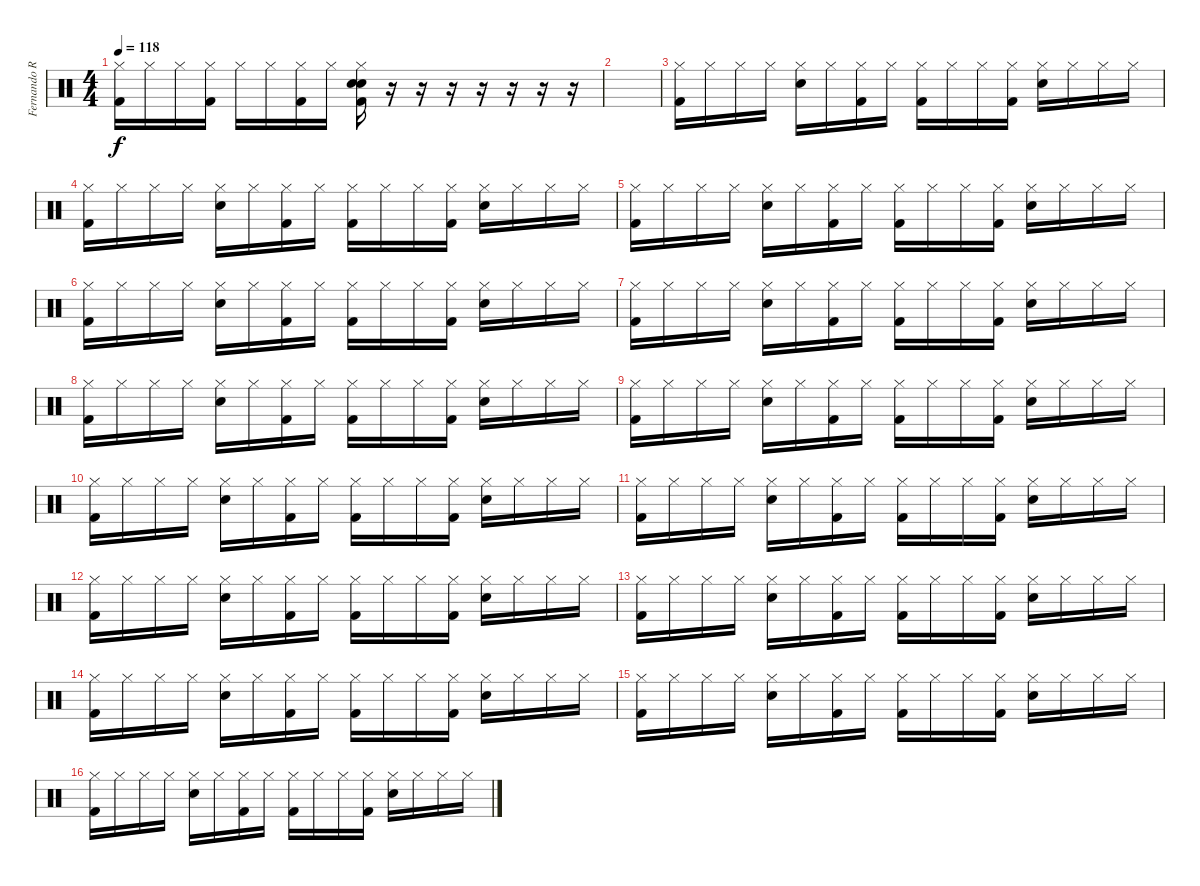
\track ("Fernando Ricciardi" "Fernando R") {instrument percussion}
\staff {score}
\articulation defaults
\ts (4 4)
\tempo 118
\clef neutral
\ks c
("Hi-Hat (closed)" "Kick (hit) 2").16{dy f} "Hi-Hat (closed)".16 "Hi-Hat (closed)".16 ("Hi-Hat (closed)" "Kick (hit) 2").16 "Hi-Hat (closed)".16 "Hi-Hat (closed)".16 ("Hi-Hat (closed)" "Kick (hit) 2").16 "Hi-Hat (closed)".16 ("Snare (hit) 2" "Hi-Hat (closed)" "Electric Snare (hit)" "Kick (hit) 2").16 r.16 r.16 r.16 r.16 r.16 r.16 r.16 |
|
("Hi-Hat (closed)" "Kick (hit) 2").16 "Hi-Hat (closed)".16 "Hi-Hat (closed)".16 "Hi-Hat (closed)".16 ("Hi-Hat (closed)" "Snare (hit) 2").16 "Hi-Hat (closed)".16 ("Hi-Hat (closed)" "Kick (hit) 2").16 "Hi-Hat (closed)".16 ("Hi-Hat (closed)" "Kick (hit) 2").16 "Hi-Hat (closed)".16 "Hi-Hat (closed)".16 ("Hi-Hat (closed)" "Kick (hit) 2").16 ("Hi-Hat (closed)" "Snare (hit) 2").16 "Hi-Hat (closed)".16 "Hi-Hat (closed)".16 "Hi-Hat (closed)".16 |
("Hi-Hat (closed)" "Kick (hit) 2").16 "Hi-Hat (closed)".16 "Hi-Hat (closed)".16 "Hi-Hat (closed)".16 ("Hi-Hat (closed)" "Snare (hit) 2").16 "Hi-Hat (closed)".16 ("Hi-Hat (closed)" "Kick (hit) 2").16 "Hi-Hat (closed)".16 ("Hi-Hat (closed)" "Kick (hit) 2").16 "Hi-Hat (closed)".16 "Hi-Hat (closed)".16 ("Hi-Hat (closed)" "Kick (hit) 2").16 ("Hi-Hat (closed)" "Snare (hit) 2").16 "Hi-Hat (closed)".16 "Hi-Hat (closed)".16 "Hi-Hat (closed)".16 |
("Hi-Hat (closed)" "Kick (hit) 2").16 "Hi-Hat (closed)".16 "Hi-Hat (closed)".16 "Hi-Hat (closed)".16 ("Hi-Hat (closed)" "Snare (hit) 2").16 "Hi-Hat (closed)".16 ("Hi-Hat (closed)" "Kick (hit) 2").16 "Hi-Hat (closed)".16 ("Hi-Hat (closed)" "Kick (hit) 2").16 "Hi-Hat (closed)".16 "Hi-Hat (closed)".16 ("Hi-Hat (closed)" "Kick (hit) 2").16 ("Hi-Hat (closed)" "Snare (hit) 2").16 "Hi-Hat (closed)".16 "Hi-Hat (closed)".16 "Hi-Hat (closed)".16 |
("Hi-Hat (closed)" "Kick (hit) 2").16 "Hi-Hat (closed)".16 "Hi-Hat (closed)".16 "Hi-Hat (closed)".16 ("Hi-Hat (closed)" "Snare (hit) 2").16 "Hi-Hat (closed)".16 ("Hi-Hat (closed)" "Kick (hit) 2").16 "Hi-Hat (closed)".16 ("Hi-Hat (closed)" "Kick (hit) 2").16 "Hi-Hat (closed)".16 "Hi-Hat (closed)".16 ("Hi-Hat (closed)" "Kick (hit) 2").16 ("Hi-Hat (closed)" "Snare (hit) 2").16 "Hi-Hat (closed)".16 "Hi-Hat (closed)".16 "Hi-Hat (closed)".16 |
("Hi-Hat (closed)" "Kick (hit) 2").16 "Hi-Hat (closed)".16 "Hi-Hat (closed)".16 "Hi-Hat (closed)".16 ("Hi-Hat (closed)" "Snare (hit) 2").16 "Hi-Hat (closed)".16 ("Hi-Hat (closed)" "Kick (hit) 2").16 "Hi-Hat (closed)".16 ("Hi-Hat (closed)" "Kick (hit) 2").16 "Hi-Hat (closed)".16 "Hi-Hat (closed)".16 ("Hi-Hat (closed)" "Kick (hit) 2").16 ("Hi-Hat (closed)" "Snare (hit) 2").16 "Hi-Hat (closed)".16 "Hi-Hat (closed)".16 "Hi-Hat (closed)".16 |
("Hi-Hat (closed)" "Kick (hit) 2").16 "Hi-Hat (closed)".16 "Hi-Hat (closed)".16 "Hi-Hat (closed)".16 ("Hi-Hat (closed)" "Snare (hit) 2").16 "Hi-Hat (closed)".16 ("Hi-Hat (closed)" "Kick (hit) 2").16 "Hi-Hat (closed)".16 ("Hi-Hat (closed)" "Kick (hit) 2").16 "Hi-Hat (closed)".16 "Hi-Hat (closed)".16 ("Hi-Hat (closed)" "Kick (hit) 2").16 ("Hi-Hat (closed)" "Snare (hit) 2").16 "Hi-Hat (closed)".16 "Hi-Hat (closed)".16 "Hi-Hat (closed)".16 |
("Hi-Hat (closed)" "Kick (hit) 2").16 "Hi-Hat (closed)".16 "Hi-Hat (closed)".16 "Hi-Hat (closed)".16 ("Hi-Hat (closed)" "Snare (hit) 2").16 "Hi-Hat (closed)".16 ("Hi-Hat (closed)" "Kick (hit) 2").16 "Hi-Hat (closed)".16 ("Hi-Hat (closed)" "Kick (hit) 2").16 "Hi-Hat (closed)".16 "Hi-Hat (closed)".16 ("Hi-Hat (closed)" "Kick (hit) 2").16 ("Hi-Hat (closed)" "Snare (hit) 2").16 "Hi-Hat (closed)".16 "Hi-Hat (closed)".16 "Hi-Hat (closed)".16 |
("Hi-Hat (closed)" "Kick (hit) 2").16 "Hi-Hat (closed)".16 "Hi-Hat (closed)".16 "Hi-Hat (closed)".16 ("Hi-Hat (closed)" "Snare (hit) 2").16 "Hi-Hat (closed)".16 ("Hi-Hat (closed)" "Kick (hit) 2").16 "Hi-Hat (closed)".16 ("Hi-Hat (closed)" "Kick (hit) 2").16 "Hi-Hat (closed)".16 "Hi-Hat (closed)".16 ("Hi-Hat (closed)" "Kick (hit) 2").16 ("Hi-Hat (closed)" "Snare (hit) 2").16 "Hi-Hat (closed)".16 "Hi-Hat (closed)".16 "Hi-Hat (closed)".16 |
("Hi-Hat (closed)" "Kick (hit) 2").16 "Hi-Hat (closed)".16 "Hi-Hat (closed)".16 "Hi-Hat (closed)".16 ("Hi-Hat (closed)" "Snare (hit) 2").16 "Hi-Hat (closed)".16 ("Hi-Hat (closed)" "Kick (hit) 2").16 "Hi-Hat (closed)".16 ("Hi-Hat (closed)" "Kick (hit) 2").16 "Hi-Hat (closed)".16 "Hi-Hat (closed)".16 ("Hi-Hat (closed)" "Kick (hit) 2").16 ("Hi-Hat (closed)" "Snare (hit) 2").16 "Hi-Hat (closed)".16 "Hi-Hat (closed)".16 "Hi-Hat (closed)".16 |
("Hi-Hat (closed)" "Kick (hit) 2").16 "Hi-Hat (closed)".16 "Hi-Hat (closed)".16 "Hi-Hat (closed)".16 ("Hi-Hat (closed)" "Snare (hit) 2").16 "Hi-Hat (closed)".16 ("Hi-Hat (closed)" "Kick (hit) 2").16 "Hi-Hat (closed)".16 ("Hi-Hat (closed)" "Kick (hit) 2").16 "Hi-Hat (closed)".16 "Hi-Hat (closed)".16 ("Hi-Hat (closed)" "Kick (hit) 2").16 ("Hi-Hat (closed)" "Snare (hit) 2").16 "Hi-Hat (closed)".16 "Hi-Hat (closed)".16 "Hi-Hat (closed)".16 |
("Hi-Hat (closed)" "Kick (hit) 2").16 "Hi-Hat (closed)".16 "Hi-Hat (closed)".16 "Hi-Hat (closed)".16 ("Hi-Hat (closed)" "Snare (hit) 2").16 "Hi-Hat (closed)".16 ("Hi-Hat (closed)" "Kick (hit) 2").16 "Hi-Hat (closed)".16 ("Hi-Hat (closed)" "Kick (hit) 2").16 "Hi-Hat (closed)".16 "Hi-Hat (closed)".16 ("Hi-Hat (closed)" "Kick (hit) 2").16 ("Hi-Hat (closed)" "Snare (hit) 2").16 "Hi-Hat (closed)".16 "Hi-Hat (closed)".16 "Hi-Hat (closed)".16 |
("Hi-Hat (closed)" "Kick (hit) 2").16 "Hi-Hat (closed)".16 "Hi-Hat (closed)".16 "Hi-Hat (closed)".16 ("Hi-Hat (closed)" "Snare (hit) 2").16 "Hi-Hat (closed)".16 ("Hi-Hat (closed)" "Kick (hit) 2").16 "Hi-Hat (closed)".16 ("Hi-Hat (closed)" "Kick (hit) 2").16 "Hi-Hat (closed)".16 "Hi-Hat (closed)".16 ("Hi-Hat (closed)" "Kick (hit) 2").16 ("Hi-Hat (closed)" "Snare (hit) 2").16 "Hi-Hat (closed)".16 "Hi-Hat (closed)".16 "Hi-Hat (closed)".16 |
("Hi-Hat (closed)" "Kick (hit) 2").16 "Hi-Hat (closed)".16 "Hi-Hat (closed)".16 "Hi-Hat (closed)".16 ("Hi-Hat (closed)" "Snare (hit) 2").16 "Hi-Hat (closed)".16 ("Hi-Hat (closed)" "Kick (hit) 2").16 "Hi-Hat (closed)".16 ("Hi-Hat (closed)" "Kick (hit) 2").16 "Hi-Hat (closed)".16 "Hi-Hat (closed)".16 ("Hi-Hat (closed)" "Kick (hit) 2").16 ("Hi-Hat (closed)" "Snare (hit) 2").16 "Hi-Hat (closed)".16 "Hi-Hat (closed)".16 "Hi-Hat (closed)".16 |
("Hi-Hat (closed)" "Kick (hit) 2").16 "Hi-Hat (closed)".16 "Hi-Hat (closed)".16 "Hi-Hat (closed)".16 ("Hi-Hat (closed)" "Snare (hit) 2").16 "Hi-Hat (closed)".16 ("Hi-Hat (closed)" "Kick (hit) 2").16 "Hi-Hat (closed)".16 ("Hi-Hat (closed)" "Kick (hit) 2").16 "Hi-Hat (closed)".16 "Hi-Hat (closed)".16 ("Hi-Hat (closed)" "Kick (hit) 2").16 ("Hi-Hat (closed)" "Snare (hit) 2").16 "Hi-Hat (closed)".16 "Hi-Hat (closed)".16 "Hi-Hat (closed)".16
